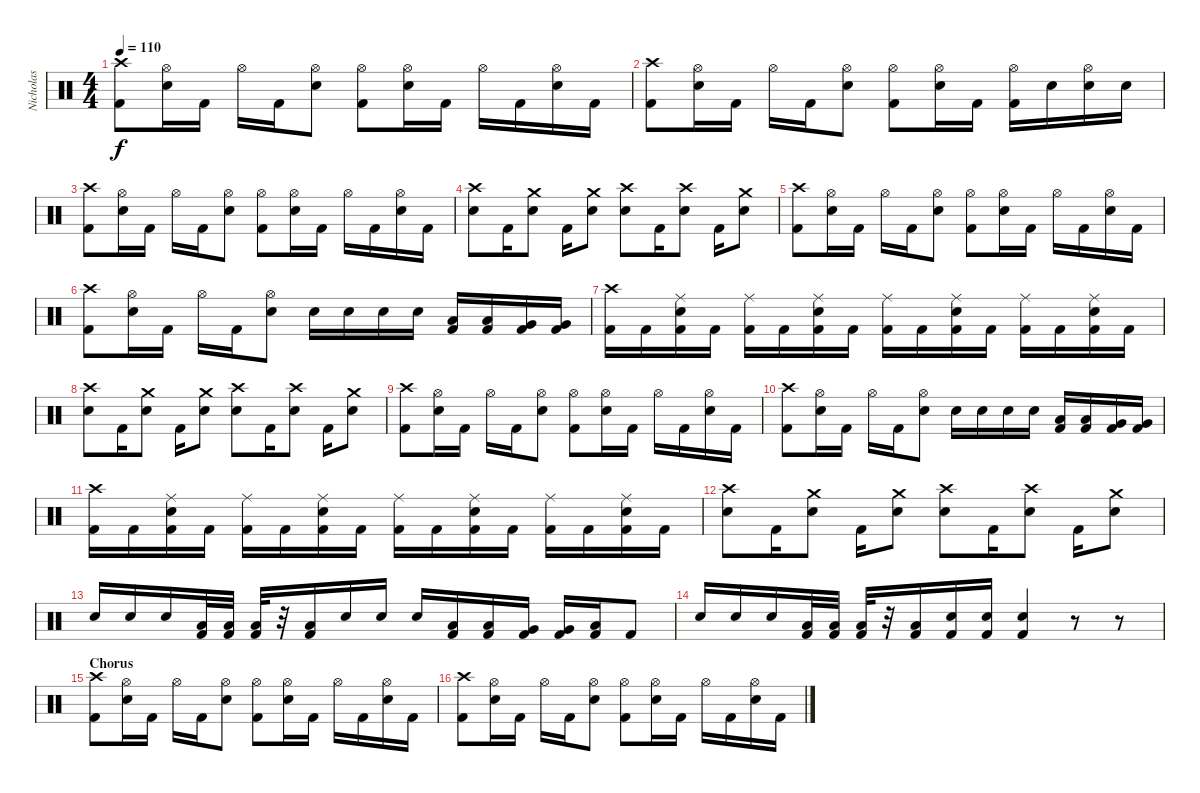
\track ("Nicholas" "Nicholas") {instrument percussion}
\staff {score}
\articulation defaults
\ts (4 4)
\tempo 110
\clef neutral
\ks c
("Crash high (hit)" "Kick (hit) 2").8{dy f} ("Hi-Hat (open)" "Snare (hit) 2").16 "Kick (hit) 2".16 "Hi-Hat (open)".16 "Kick (hit) 2".16 ("Hi-Hat (open)" "Snare (hit) 2").8 ("Hi-Hat (open)" "Kick (hit) 2").8 ("Hi-Hat (open)" "Snare (hit) 2").16 "Kick (hit) 2".16 "Hi-Hat (open)".16 "Kick (hit) 2".16 ("Hi-Hat (open)" "Snare (hit) 2").16 "Kick (hit) 2".16 |
("Crash high (hit)" "Kick (hit) 2").8 ("Hi-Hat (open)" "Snare (hit) 2").16 "Kick (hit) 2".16 "Hi-Hat (open)".16 "Kick (hit) 2".16 ("Hi-Hat (open)" "Snare (hit) 2").8 ("Hi-Hat (open)" "Kick (hit) 2").8 ("Hi-Hat (open)" "Snare (hit) 2").16 "Kick (hit) 2".16 ("Hi-Hat (open)" "Kick (hit) 2").16 "Snare (hit) 2".16 ("Hi-Hat (open)" "Snare (hit) 2").16 "Snare (hit) 2".16 |
("Crash high (hit)" "Kick (hit) 2").8 ("Hi-Hat (open)" "Snare (hit) 2").16 "Kick (hit) 2".16 "Hi-Hat (open)".16 "Kick (hit) 2".16 ("Hi-Hat (open)" "Snare (hit) 2").8 ("Hi-Hat (open)" "Kick (hit) 2").8 ("Hi-Hat (open)" "Snare (hit) 2").16 "Kick (hit) 2".16 "Hi-Hat (open)".16 "Kick (hit) 2".16 ("Hi-Hat (open)" "Snare (hit) 2").16 "Kick (hit) 2".16 |
("Crash high (hit)" "Snare (hit) 2").8 "Kick (hit) 2".16 ("Crash medium (hit)" "Snare (hit) 2").8 "Kick (hit) 2".16 ("Crash medium (hit)" "Snare (hit) 2").8 ("Crash high (hit)" "Snare (hit) 2").8 "Kick (hit) 2".16 ("Crash high (hit)" "Snare (hit) 2").8 "Kick (hit) 2".16 ("Crash medium (hit)" "Snare (hit) 2").8 |
("Crash high (hit)" "Kick (hit) 2").8 ("Hi-Hat (open)" "Snare (hit) 2").16 "Kick (hit) 2".16 "Hi-Hat (open)".16 "Kick (hit) 2".16 ("Hi-Hat (open)" "Snare (hit) 2").8 ("Hi-Hat (open)" "Kick (hit) 2").8 ("Hi-Hat (open)" "Snare (hit) 2").16 "Kick (hit) 2".16 "Hi-Hat (open)".16 "Kick (hit) 2".16 ("Hi-Hat (open)" "Snare (hit) 2").16 "Kick (hit) 2".16 |
("Crash high (hit)" "Kick (hit) 2").8 ("Hi-Hat (open)" "Snare (hit) 2").16 "Kick (hit) 2".16 "Hi-Hat (open)".16 "Kick (hit) 2".16 ("Hi-Hat (open)" "Snare (hit) 2").8 "Snare (hit) 2".16 "Snare (hit) 2".16 "Snare (hit) 2".16 "Snare (hit) 2".16 ("Kick (hit) 2" "Low Tom (hit)").16 ("Kick (hit) 2" "Low Tom (hit)").16 ("Kick (hit) 2" "Very Low Tom (hit)").16 ("Kick (hit) 2" "Very Low Tom (hit)").16 |
("Crash high (hit)" "Kick (hit) 2").16 "Kick (hit) 2".16 ("Ride (middle)" "Snare (hit) 2" "Kick (hit) 2").16 "Kick (hit) 2".16 ("Ride (middle)" "Kick (hit) 2").16 "Kick (hit) 2".16 ("Ride (middle)" "Snare (hit) 2" "Kick (hit) 2").16 "Kick (hit) 2".16 ("Ride (middle)" "Kick (hit) 2").16 "Kick (hit) 2".16 ("Ride (middle)" "Snare (hit) 2" "Kick (hit) 2").16 "Kick (hit) 2".16 ("Ride (middle)" "Kick (hit) 2").16 "Kick (hit) 2".16 ("Ride (middle)" "Snare (hit) 2" "Kick (hit) 2").16 "Kick (hit) 2".16 |
("Crash high (hit)" "Snare (hit) 2").8 "Kick (hit) 2".16 ("Crash medium (hit)" "Snare (hit) 2").8 "Kick (hit) 2".16 ("Crash medium (hit)" "Snare (hit) 2").8 ("Crash high (hit)" "Snare (hit) 2").8 "Kick (hit) 2".16 ("Crash high (hit)" "Snare (hit) 2").8 "Kick (hit) 2".16 ("Crash medium (hit)" "Snare (hit) 2").8 |
("Crash high (hit)" "Kick (hit) 2").8 ("Hi-Hat (open)" "Snare (hit) 2").16 "Kick (hit) 2".16 "Hi-Hat (open)".16 "Kick (hit) 2".16 ("Hi-Hat (open)" "Snare (hit) 2").8 ("Hi-Hat (open)" "Kick (hit) 2").8 ("Hi-Hat (open)" "Snare (hit) 2").16 "Kick (hit) 2".16 "Hi-Hat (open)".16 "Kick (hit) 2".16 ("Hi-Hat (open)" "Snare (hit) 2").16 "Kick (hit) 2".16 |
("Crash high (hit)" "Kick (hit) 2").8 ("Hi-Hat (open)" "Snare (hit) 2").16 "Kick (hit) 2".16 "Hi-Hat (open)".16 "Kick (hit) 2".16 ("Hi-Hat (open)" "Snare (hit) 2").8 "Snare (hit) 2".16 "Snare (hit) 2".16 "Snare (hit) 2".16 "Snare (hit) 2".16 ("Kick (hit) 2" "Low Tom (hit)").16 ("Kick (hit) 2" "Low Tom (hit)").16 ("Kick (hit) 2" "Very Low Tom (hit)").16 ("Kick (hit) 2" "Very Low Tom (hit)").16 |
("Crash high (hit)" "Kick (hit) 2").16 "Kick (hit) 2".16 ("Ride (middle)" "Snare (hit) 2" "Kick (hit) 2").16 "Kick (hit) 2".16 ("Ride (middle)" "Kick (hit) 2").16 "Kick (hit) 2".16 ("Ride (middle)" "Snare (hit) 2" "Kick (hit) 2").16 "Kick (hit) 2".16 ("Ride (middle)" "Kick (hit) 2").16 "Kick (hit) 2".16 ("Ride (middle)" "Snare (hit) 2" "Kick (hit) 2").16 "Kick (hit) 2".16 ("Ride (middle)" "Kick (hit) 2").16 "Kick (hit) 2".16 ("Ride (middle)" "Snare (hit) 2" "Kick (hit) 2").16 "Kick (hit) 2".16 |
("Crash high (hit)" "Snare (hit) 2").8 "Kick (hit) 2".16 ("Crash medium (hit)" "Snare (hit) 2").8 "Kick (hit) 2".16 ("Crash medium (hit)" "Snare (hit) 2").8 ("Crash high (hit)" "Snare (hit) 2").8 "Kick (hit) 2".16 ("Crash high (hit)" "Snare (hit) 2").8 "Kick (hit) 2".16 ("Crash medium (hit)" "Snare (hit) 2").8 |
"Snare (hit) 2".16 "Snare (hit) 2".16 "Snare (hit) 2".16 ("Kick (hit) 2" "Low Tom (hit)").32 ("Kick (hit) 2" "Low Tom (hit)").32 ("Kick (hit) 2" "Low Tom (hit)").32 r.32 ("Kick (hit) 2" "Low Tom (hit)").16 "Snare (hit) 2".16 "Snare (hit) 2".16 "Snare (hit) 2".16 ("Kick (hit) 2" "Low Tom (hit)").16 ("Kick (hit) 2" "Low Tom (hit)").16 ("Kick (hit) 2" "Very Low Tom (hit)").16 ("Kick (hit) 2" "Very Low Tom (hit)").16 ("Kick (hit) 2" "Low Floor Tom (hit)").16 "Kick (hit) 2".8 |
"Snare (hit) 2".16 "Snare (hit) 2".16 "Snare (hit) 2".16 ("Kick (hit) 2" "Low Tom (hit)").32 ("Kick (hit) 2" "Low Tom (hit)").32 ("Kick (hit) 2" "Low Tom (hit)").32 r.32 ("Kick (hit) 2" "Low Tom (hit)").16 ("Kick (hit) 2" "Snare (hit) 2").16 ("Kick (hit) 2" "Snare (hit) 2").16 ("Kick (hit) 2" "Snare (hit) 2").4 r.8 r.8 |
\section ("" "Chorus")
("Crash high (hit)" "Kick (hit) 2").8 ("Hi-Hat (open)" "Snare (hit) 2").16 "Kick (hit) 2".16 "Hi-Hat (open)".16 "Kick (hit) 2".16 ("Hi-Hat (open)" "Snare (hit) 2").8 ("Hi-Hat (open)" "Kick (hit) 2").8 ("Hi-Hat (open)" "Snare (hit) 2").16 "Kick (hit) 2".16 "Hi-Hat (open)".16 "Kick (hit) 2".16 ("Hi-Hat (open)" "Snare (hit) 2").16 "Kick (hit) 2".16 |
("Crash high (hit)" "Kick (hit) 2").8 ("Hi-Hat (open)" "Snare (hit) 2").16 "Kick (hit) 2".16 "Hi-Hat (open)".16 "Kick (hit) 2".16 ("Hi-Hat (open)" "Snare (hit) 2").8 ("Hi-Hat (open)" "Kick (hit) 2").8 ("Hi-Hat (open)" "Snare (hit) 2").16 "Kick (hit) 2".16 "Hi-Hat (open)".16 "Kick (hit) 2".16 ("Hi-Hat (open)" "Snare (hit) 2").16 "Kick (hit) 2".16
